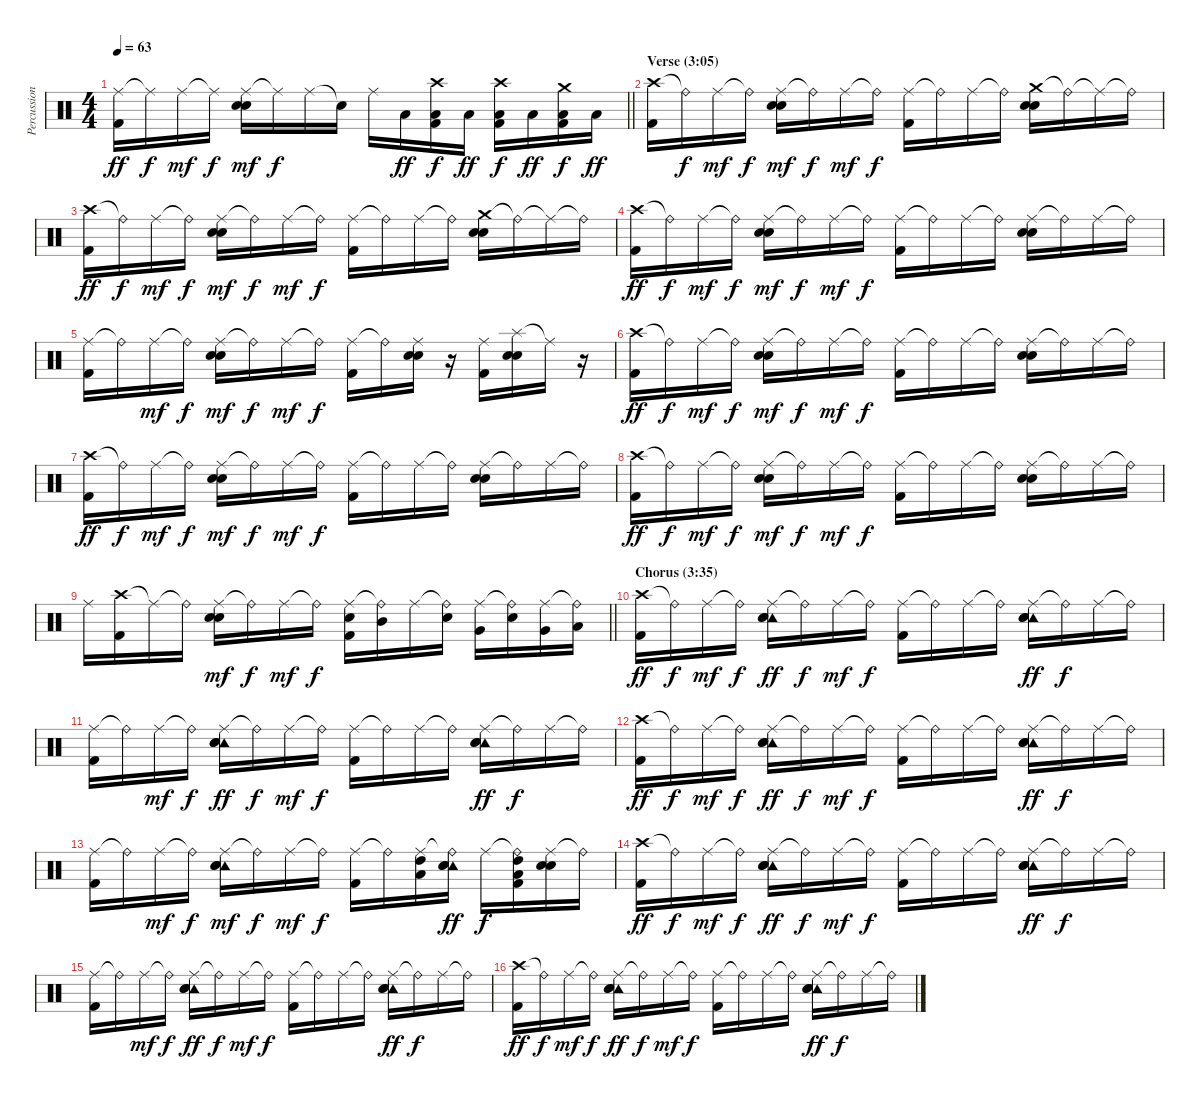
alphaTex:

\track ("Percussion" "Percussion") {instrument percussion}
\staff {score}
\articulation defaults
\ts (4 4)
\tempo 63
\clef neutral
\barLineRight lightlight
\ks c
("Ride (middle)" "Kick (hit) 2").16{dy ff} "Ride (middle)"{t}.16{dy f} "Ride (middle)".16{dy mf} "Ride (middle)"{t}.16{dy f} ("Ride (middle)" "Snare (hit) 2" "Electric Snare (hit)").16{dy mf} "Ride (middle)"{t}.16{dy f} "Ride (middle)".16 "Snare (hit)"{t}.16 "Ride (middle)".16 "Low Floor Tom (hit)".16{dy ff} ("Crash high (hit)" "Low Floor Tom (hit)" "Kick (hit) 2").16{dy f} "Low Floor Tom (hit)".16{dy ff} ("Crash high (hit)" "Low Floor Tom (hit)" "Kick (hit) 2").16{dy f} "Low Floor Tom (hit)".16{dy ff} ("Crash medium (hit)" "Low Floor Tom (hit)" "Kick (hit) 2").16{dy f} "Low Floor Tom (hit)".16{dy ff} |
\section ("" "Verse (3:05)")
("Crash high (hit)" "Kick (hit) 2").16 "Ride (bell)"{t}.16{dy f} "Ride (middle)".16{dy mf} "Ride (bell)"{t}.16{dy f} ("Ride (middle)" "Snare (hit) 2" "Electric Snare (hit)").16{dy mf} "Ride (bell)"{t}.16{dy f} "Ride (middle)".16{dy mf} "Ride (bell)"{t}.16{dy f} ("Ride (middle)" "Kick (hit) 2").16 "Ride (bell)"{t}.16 "Ride (middle)".16 "Ride (bell)"{t}.16 ("Crash medium (hit)" "Snare (hit) 2" "Electric Snare (hit)").16 "Ride (bell)"{t}.16 "Ride (middle)"{t}.16 "Ride (bell)"{t}.16 |
("Crash high (hit)" "Kick (hit) 2").16{dy ff} "Ride (bell)"{t}.16{dy f} "Ride (middle)".16{dy mf} "Ride (bell)"{t}.16{dy f} ("Ride (middle)" "Snare (hit) 2" "Electric Snare (hit)").16{dy mf} "Ride (bell)"{t}.16{dy f} "Ride (middle)".16{dy mf} "Ride (bell)"{t}.16{dy f} ("Ride (middle)" "Kick (hit) 2").16 "Ride (bell)"{t}.16 "Ride (middle)".16 "Ride (bell)"{t}.16 ("Crash medium (hit)" "Snare (hit) 2" "Electric Snare (hit)").16 "Ride (bell)"{t}.16 "Ride (middle)"{t}.16 "Ride (bell)"{t}.16 |
("Crash high (hit)" "Kick (hit) 2").16{dy ff} "Ride (bell)"{t}.16{dy f} "Ride (middle)".16{dy mf} "Ride (bell)"{t}.16{dy f} ("Ride (middle)" "Snare (hit) 2" "Electric Snare (hit)").16{dy mf} "Ride (bell)"{t}.16{dy f} "Ride (middle)".16{dy mf} "Ride (bell)"{t}.16{dy f} ("Ride (middle)" "Kick (hit) 2").16 "Ride (bell)"{t}.16 "Ride (middle)".16 "Ride (bell)"{t}.16 ("Ride (middle)" "Snare (hit) 2" "Electric Snare (hit)").16 "Ride (bell)"{t}.16 "Ride (middle)".16 "Ride (bell)"{t}.16 |
("Ride (middle)" "Kick (hit) 2").16 "Ride (bell)"{t}.16 "Ride (middle)".16{dy mf} "Ride (bell)"{t}.16{dy f} ("Ride (middle)" "Snare (hit) 2" "Electric Snare (hit)").16{dy mf} "Ride (bell)"{t}.16{dy f} "Ride (middle)".16{dy mf} "Ride (bell)"{t}.16{dy f} ("Ride (middle)" "Kick (hit) 2").16 "Ride (bell)"{t}.16 ("Ride (middle)" "Snare (hit) 2" "Electric Snare (hit)").16 r.16 ("Ride (middle)" "Kick (hit) 2").16 ("Splash (hit)" "Snare (hit) 2" "Electric Snare (hit)").16 "Ride (middle)"{t}.16 r.16 |
("Crash high (hit)" "Kick (hit) 2").16{dy ff} "Ride (bell)"{t}.16{dy f} "Ride (middle)".16{dy mf} "Ride (bell)"{t}.16{dy f} ("Ride (middle)" "Snare (hit) 2" "Electric Snare (hit)").16{dy mf} "Ride (bell)"{t}.16{dy f} "Ride (middle)".16{dy mf} "Ride (bell)"{t}.16{dy f} ("Ride (middle)" "Kick (hit) 2").16 "Ride (bell)"{t}.16 "Ride (middle)".16 "Ride (bell)"{t}.16 ("Ride (middle)" "Snare (hit) 2" "Electric Snare (hit)").16 "Ride (bell)"{t}.16 "Ride (middle)".16 "Ride (bell)"{t}.16 |
("Crash high (hit)" "Kick (hit) 2").16{dy ff} "Ride (bell)"{t}.16{dy f} "Ride (middle)".16{dy mf} "Ride (bell)"{t}.16{dy f} ("Ride (middle)" "Snare (hit) 2" "Electric Snare (hit)").16{dy mf} "Ride (bell)"{t}.16{dy f} "Ride (middle)".16{dy mf} "Ride (bell)"{t}.16{dy f} ("Ride (middle)" "Kick (hit) 2").16 "Ride (bell)"{t}.16 "Ride (middle)".16 "Ride (bell)"{t}.16 ("Ride (middle)" "Snare (hit) 2" "Electric Snare (hit)").16 "Ride (bell)"{t}.16 "Ride (middle)".16 "Ride (bell)"{t}.16 |
("Crash high (hit)" "Kick (hit) 2").16{dy ff} "Ride (bell)"{t}.16{dy f} "Ride (middle)".16{dy mf} "Ride (bell)"{t}.16{dy f} ("Ride (middle)" "Snare (hit) 2" "Electric Snare (hit)").16{dy mf} "Ride (bell)"{t}.16{dy f} "Ride (middle)".16{dy mf} "Ride (bell)"{t}.16{dy f} ("Ride (middle)" "Kick (hit) 2").16 "Ride (bell)"{t}.16 "Ride (middle)".16 "Ride (bell)"{t}.16 ("Ride (middle)" "Snare (hit) 2" "Electric Snare (hit)").16 "Ride (bell)"{t}.16 "Ride (middle)".16 "Ride (bell)"{t}.16 |
\barLineRight lightlight "Ride (middle)".16
("Crash high (hit)" "Kick (hit) 2").16 "Ride (middle)"{t}.16 "Ride (bell)"{t}.16 ("Ride (middle)" "Snare (hit) 2" "Electric Snare (hit)").16{dy mf} "Ride (bell)"{t}.16{dy f} "Ride (middle)".16{dy mf} "Ride (bell)"{t}.16{dy f} ("Ride (middle)" "Electric Snare (hit)" "Kick (hit) 2").16 ("Ride (bell)"{t} "Mid Tom (hit)").16 "Ride (middle)".16 ("Ride (bell)"{t} "Electric Snare (hit)").16 ("Ride (middle)" "Very Low Tom (hit)").16 ("Ride (bell)"{t} "Electric Snare (hit)").16 ("Ride (middle)" "Very Low Tom (hit)").16 ("Ride (bell)"{t} "Low Floor Tom (hit)").16 |
\section ("" "Chorus (3:35)")
("Crash high (hit)" "Kick (hit) 2").16{dy ff} "Ride (bell)"{t}.16{dy f} "Ride (middle)".16{dy mf} "Ride (bell)"{t}.16{dy f} ("Ride (middle)" "Tambourine (hit)" "Snare (hit) 2" "Electric Snare (hit)").16{dy ff} "Ride (bell)"{t}.16{dy f} "Ride (middle)".16{dy mf} "Ride (bell)"{t}.16{dy f} ("Ride (middle)" "Kick (hit) 2").16 "Ride (bell)"{t}.16 "Ride (middle)".16 "Ride (bell)"{t}.16 ("Ride (middle)" "Tambourine (hit)" "Snare (hit) 2" "Electric Snare (hit)").16{dy ff} "Ride (bell)"{t}.16{dy f} "Ride (middle)".16 "Ride (bell)"{t}.16 |
("Ride (middle)" "Kick (hit) 2").16 "Ride (bell)"{t}.16 "Ride (middle)".16{dy mf} "Ride (bell)"{t}.16{dy f} ("Ride (middle)" "Tambourine (hit)" "Snare (hit) 2" "Electric Snare (hit)").16{dy ff} "Ride (bell)"{t}.16{dy f} "Ride (middle)".16{dy mf} "Ride (bell)"{t}.16{dy f} ("Ride (middle)" "Kick (hit) 2").16 "Ride (bell)"{t}.16 "Ride (middle)".16 "Ride (bell)"{t}.16 ("Ride (middle)" "Tambourine (hit)" "Snare (hit) 2" "Electric Snare (hit)").16{dy ff} "Ride (bell)"{t}.16{dy f} "Ride (middle)".16 "Ride (bell)"{t}.16 |
("Crash high (hit)" "Kick (hit) 2").16{dy ff} "Ride (bell)"{t}.16{dy f} "Ride (middle)".16{dy mf} "Ride (bell)"{t}.16{dy f} ("Ride (middle)" "Tambourine (hit)" "Snare (hit) 2" "Electric Snare (hit)").16{dy ff} "Ride (bell)"{t}.16{dy f} "Ride (middle)".16{dy mf} "Ride (bell)"{t}.16{dy f} ("Ride (middle)" "Kick (hit) 2").16 "Ride (bell)"{t}.16 "Ride (middle)".16 "Ride (bell)"{t}.16 ("Ride (middle)" "Tambourine (hit)" "Snare (hit) 2" "Electric Snare (hit)").16{dy ff} "Ride (bell)"{t}.16{dy f} "Ride (middle)".16 "Ride (bell)"{t}.16 |
("Ride (middle)" "Kick (hit) 2").16 "Ride (bell)"{t}.16 "Ride (middle)".16{dy mf} "Ride (bell)"{t}.16{dy f} ("Ride (middle)" "Tambourine (hit)" "Snare (hit) 2" "Electric Snare (hit)").16{dy mf} "Ride (bell)"{t}.16{dy f} "Ride (middle)".16{dy mf} "Ride (bell)"{t}.16{dy f} ("Ride (middle)" "Kick (hit) 2").16 "Ride (bell)"{t}.16 ("Ride (middle)" "High Tom (hit)" "Low Tom (hit)").16 ("Ride (bell)"{t} "Tambourine (hit)" "Snare (hit) 2" "Electric Snare (hit)").16{dy ff} "Ride (middle)".16{dy f} ("Ride (bell)"{t} "High Tom (hit)" "Low Tom (hit)" "Kick (hit) 2").16 ("Ride (middle)" "Snare (hit) 2" "Electric Snare (hit)").16 "Ride (bell)"{t}.16 |
("Crash high (hit)" "Kick (hit) 2").16{dy ff} "Ride (bell)"{t}.16{dy f} "Ride (middle)".16{dy mf} "Ride (bell)"{t}.16{dy f} ("Ride (middle)" "Tambourine (hit)" "Snare (hit) 2" "Electric Snare (hit)").16{dy ff} "Ride (bell)"{t}.16{dy f} "Ride (middle)".16{dy mf} "Ride (bell)"{t}.16{dy f} ("Ride (middle)" "Kick (hit) 2").16 "Ride (bell)"{t}.16 "Ride (middle)".16 "Ride (bell)"{t}.16 ("Ride (middle)" "Tambourine (hit)" "Snare (hit) 2" "Electric Snare (hit)").16{dy ff} "Ride (bell)"{t}.16{dy f} "Ride (middle)".16 "Ride (bell)"{t}.16 |
("Ride (middle)" "Kick (hit) 2").16 "Ride (bell)"{t}.16 "Ride (middle)".16{dy mf} "Ride (bell)"{t}.16{dy f} ("Ride (middle)" "Tambourine (hit)" "Snare (hit) 2" "Electric Snare (hit)").16{dy ff} "Ride (bell)"{t}.16{dy f} "Ride (middle)".16{dy mf} "Ride (bell)"{t}.16{dy f} ("Ride (middle)" "Kick (hit) 2").16 "Ride (bell)"{t}.16 "Ride (middle)".16 "Ride (bell)"{t}.16 ("Ride (middle)" "Tambourine (hit)" "Snare (hit) 2" "Electric Snare (hit)").16{dy ff} "Ride (bell)"{t}.16{dy f} "Ride (middle)".16 "Ride (bell)"{t}.16 |
("Crash high (hit)" "Kick (hit) 2").16{dy ff} "Ride (bell)"{t}.16{dy f} "Ride (middle)".16{dy mf} "Ride (bell)"{t}.16{dy f} ("Ride (middle)" "Tambourine (hit)" "Snare (hit) 2" "Electric Snare (hit)").16{dy ff} "Ride (bell)"{t}.16{dy f} "Ride (middle)".16{dy mf} "Ride (bell)"{t}.16{dy f} ("Ride (middle)" "Kick (hit) 2").16 "Ride (bell)"{t}.16 "Ride (middle)".16 "Ride (bell)"{t}.16 ("Ride (middle)" "Tambourine (hit)" "Snare (hit) 2" "Electric Snare (hit)").16{dy ff} "Ride (bell)"{t}.16{dy f} "Ride (middle)".16 "Ride (bell)"{t}.16
